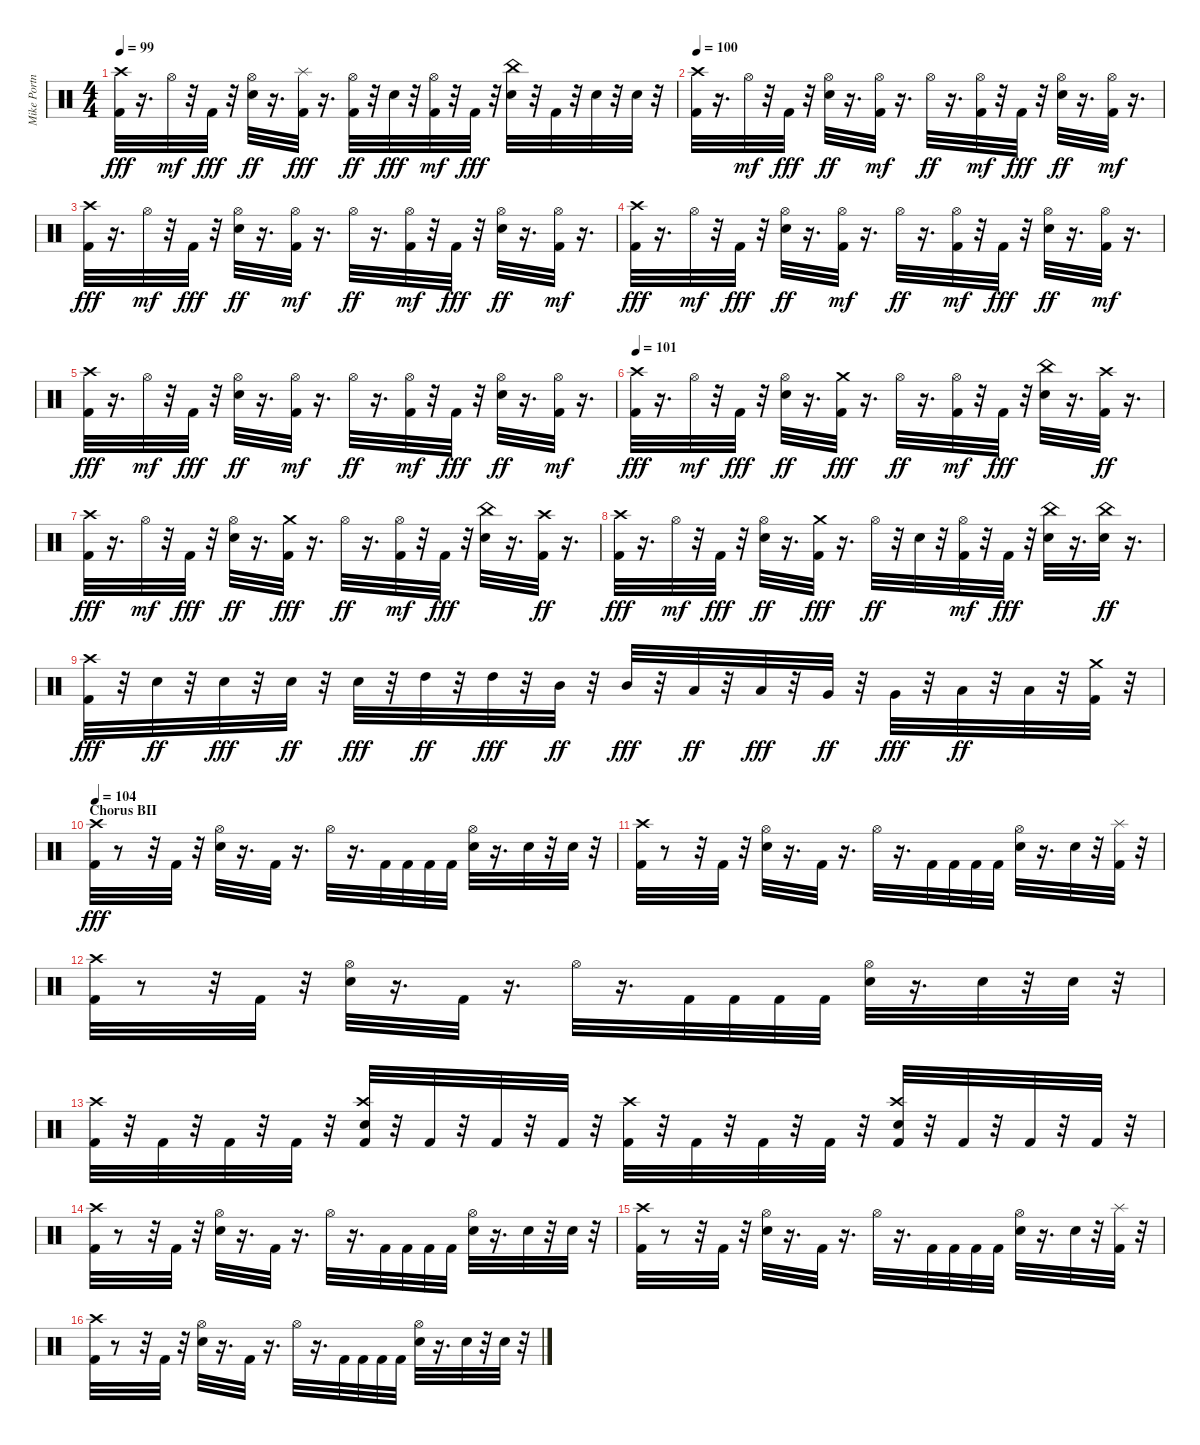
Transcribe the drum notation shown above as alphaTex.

\track ("Mike Portnoy" "Mike Portn") {instrument percussion}
\staff {score}
\articulation defaults
\ts (4 4)
\tempo 99
\clef neutral
\ks c
("Kick (hit) 2" "Crash high (hit)").32{dy fff} r.16{d} "Hi-Hat (open)".32{dy mf} r.32 "Kick (hit) 2".32{dy fff} r.32 ("Snare (hit) 2" "Hi-Hat (open)").32{dy ff} r.16{d} ("Kick (hit) 2" "Splash (hit)").32{dy fff} r.16{d} ("Kick (hit) 2" "Hi-Hat (open)").32{dy ff} r.32 "Snare (hit) 2".32{dy fff} r.32 ("Kick (hit) 2" "Hi-Hat (open)").32{dy mf} r.32 "Kick (hit) 2".32{dy fff} r.32 ("Snare (hit) 2" "China (hit)").32 r.32 "Kick (hit) 2".32 r.32 "Snare (hit) 2".32 r.32 "Snare (hit) 2".32 r.32 |
\tempo 100
("Kick (hit) 2" "Crash high (hit)").32 r.16{d} "Hi-Hat (open)".32{dy mf} r.32 "Kick (hit) 2".32{dy fff} r.32 ("Snare (hit) 2" "Hi-Hat (open)").32{dy ff} r.16{d} ("Kick (hit) 2" "Hi-Hat (open)").32{dy mf} r.16{d} "Hi-Hat (open)".32{dy ff} r.16{d} ("Kick (hit) 2" "Hi-Hat (open)").32{dy mf} r.32 "Kick (hit) 2".32{dy fff} r.32 ("Snare (hit) 2" "Hi-Hat (open)").32{dy ff} r.16{d} ("Kick (hit) 2" "Hi-Hat (open)").32{dy mf} r.16{d} |
("Kick (hit) 2" "Crash high (hit)").32{dy fff} r.16{d} "Hi-Hat (open)".32{dy mf} r.32 "Kick (hit) 2".32{dy fff} r.32 ("Snare (hit) 2" "Hi-Hat (open)").32{dy ff} r.16{d} ("Kick (hit) 2" "Hi-Hat (open)").32{dy mf} r.16{d} "Hi-Hat (open)".32{dy ff} r.16{d} ("Kick (hit) 2" "Hi-Hat (open)").32{dy mf} r.32 "Kick (hit) 2".32{dy fff} r.32 ("Snare (hit) 2" "Hi-Hat (open)").32{dy ff} r.16{d} ("Kick (hit) 2" "Hi-Hat (open)").32{dy mf} r.16{d} |
("Kick (hit) 2" "Crash high (hit)").32{dy fff} r.16{d} "Hi-Hat (open)".32{dy mf} r.32 "Kick (hit) 2".32{dy fff} r.32 ("Snare (hit) 2" "Hi-Hat (open)").32{dy ff} r.16{d} ("Kick (hit) 2" "Hi-Hat (open)").32{dy mf} r.16{d} "Hi-Hat (open)".32{dy ff} r.16{d} ("Kick (hit) 2" "Hi-Hat (open)").32{dy mf} r.32 "Kick (hit) 2".32{dy fff} r.32 ("Snare (hit) 2" "Hi-Hat (open)").32{dy ff} r.16{d} ("Kick (hit) 2" "Hi-Hat (open)").32{dy mf} r.16{d} |
("Kick (hit) 2" "Crash high (hit)").32{dy fff} r.16{d} "Hi-Hat (open)".32{dy mf} r.32 "Kick (hit) 2".32{dy fff} r.32 ("Snare (hit) 2" "Hi-Hat (open)").32{dy ff} r.16{d} ("Kick (hit) 2" "Hi-Hat (open)").32{dy mf} r.16{d} "Hi-Hat (open)".32{dy ff} r.16{d} ("Kick (hit) 2" "Hi-Hat (open)").32{dy mf} r.32 "Kick (hit) 2".32{dy fff} r.32 ("Snare (hit) 2" "Hi-Hat (open)").32{dy ff} r.16{d} ("Kick (hit) 2" "Hi-Hat (open)").32{dy mf} r.16{d} |
\tempo 101
("Kick (hit) 2" "Crash high (hit)").32{dy fff} r.16{d} "Hi-Hat (open)".32{dy mf} r.32 "Kick (hit) 2".32{dy fff} r.32 ("Snare (hit) 2" "Hi-Hat (open)").32{dy ff} r.16{d} ("Kick (hit) 2" "Crash medium (hit)").32{dy fff} r.16{d} "Hi-Hat (open)".32{dy ff} r.16{d} ("Kick (hit) 2" "Hi-Hat (open)").32{dy mf} r.32 "Kick (hit) 2".32{dy fff} r.32 ("Snare (hit) 2" "China (hit)").32 r.16{d} ("Kick (hit) 2" "Crash high (hit)").32{dy ff} r.16{d} |
("Kick (hit) 2" "Crash high (hit)").32{dy fff} r.16{d} "Hi-Hat (open)".32{dy mf} r.32 "Kick (hit) 2".32{dy fff} r.32 ("Snare (hit) 2" "Hi-Hat (open)").32{dy ff} r.16{d} ("Kick (hit) 2" "Crash medium (hit)").32{dy fff} r.16{d} "Hi-Hat (open)".32{dy ff} r.16{d} ("Kick (hit) 2" "Hi-Hat (open)").32{dy mf} r.32 "Kick (hit) 2".32{dy fff} r.32 ("Snare (hit) 2" "China (hit)").32 r.16{d} ("Kick (hit) 2" "Crash high (hit)").32{dy ff} r.16{d} |
("Kick (hit) 2" "Crash high (hit)").32{dy fff} r.16{d} "Hi-Hat (open)".32{dy mf} r.32 "Kick (hit) 2".32{dy fff} r.32 ("Snare (hit) 2" "Hi-Hat (open)").32{dy ff} r.16{d} ("Kick (hit) 2" "Crash medium (hit)").32{dy fff} r.16{d} "Hi-Hat (open)".32{dy ff} r.32 "Snare (hit) 2".32 r.32 ("Kick (hit) 2" "Hi-Hat (open)").32{dy mf} r.32 "Kick (hit) 2".32{dy fff} r.32 ("Snare (hit) 2" "China (hit)").32 r.16{d} ("Snare (hit) 2" "China (hit)").32{dy ff} r.16{d} |
("Kick (hit) 2" "Crash high (hit)").32{dy fff} r.32 "Snare (hit) 2".32{dy ff} r.32 "Snare (hit) 2".32{dy fff} r.32 "Snare (hit) 2".32{dy ff} r.32 "Snare (hit) 2".32{dy fff} r.32 "High Tom (hit)".32{dy ff} r.32 "High Tom (hit)".32{dy fff} r.32 "Mid Tom (hit)".32{dy ff} r.32 "Mid Tom (hit)".32{dy fff} r.32 "Low Tom (hit)".32{dy ff} r.32 "Low Tom (hit)".32{dy fff} r.32 "Very Low Tom (hit)".32{dy ff} r.32 "Very Low Tom (hit)".32{dy fff} r.32 "Low Floor Tom (hit)".32{dy ff} r.32 "Low Floor Tom (hit)".32 r.32 ("Kick (hit) 2" "Crash medium (hit)").32 r.32 |
\section ("" "Chorus BII")
\tempo 104
("Kick (hit) 2" "Crash high (hit)").32{dy fff} r.8 r.32 "Kick (hit) 2".32 r.32 ("Hi-Hat (open)" "Snare (hit) 2").32 r.16{d} "Kick (hit) 2".32 r.16{d} "Hi-Hat (open)".32 r.16{d} "Kick (hit) 2".32 "Kick (hit) 2".32 "Kick (hit) 2".32 "Kick (hit) 2".32 ("Hi-Hat (open)" "Snare (hit) 2").32 r.16{d} "Snare (hit) 2".32 r.32 "Snare (hit) 2".32 r.32 |
("Kick (hit) 2" "Crash high (hit)").32 r.8 r.32 "Kick (hit) 2".32 r.32 ("Hi-Hat (open)" "Snare (hit) 2").32 r.16{d} "Kick (hit) 2".32 r.16{d} "Hi-Hat (open)".32 r.16{d} "Kick (hit) 2".32 "Kick (hit) 2".32 "Kick (hit) 2".32 "Kick (hit) 2".32 ("Hi-Hat (open)" "Snare (hit) 2").32 r.16{d} "Snare (hit) 2".32 r.32 ("Kick (hit) 2" "Splash (hit)").32 r.32 |
("Kick (hit) 2" "Crash high (hit)").32 r.8 r.32 "Kick (hit) 2".32 r.32 ("Hi-Hat (open)" "Snare (hit) 2").32 r.16{d} "Kick (hit) 2".32 r.16{d} "Hi-Hat (open)".32 r.16{d} "Kick (hit) 2".32 "Kick (hit) 2".32 "Kick (hit) 2".32 "Kick (hit) 2".32 ("Hi-Hat (open)" "Snare (hit) 2").32 r.16{d} "Snare (hit) 2".32 r.32 "Snare (hit) 2".32 r.32 |
("Kick (hit) 2" "Crash high (hit)").32 r.32 "Kick (hit) 2".32 r.32 "Kick (hit) 2".32 r.32 "Kick (hit) 2".32 r.32 ("Kick (hit) 2" "Crash high (hit)" "Snare (hit) 2").32 r.32 "Kick (hit) 2".32 r.32 "Kick (hit) 2".32 r.32 "Kick (hit) 2".32 r.32 ("Kick (hit) 2" "Crash high (hit)").32 r.32 "Kick (hit) 2".32 r.32 "Kick (hit) 2".32 r.32 "Kick (hit) 2".32 r.32 ("Kick (hit) 2" "Crash high (hit)" "Snare (hit) 2").32 r.32 "Kick (hit) 2".32 r.32 "Kick (hit) 2".32 r.32 "Kick (hit) 2".32 r.32 |
("Kick (hit) 2" "Crash high (hit)").32 r.8 r.32 "Kick (hit) 2".32 r.32 ("Hi-Hat (open)" "Snare (hit) 2").32 r.16{d} "Kick (hit) 2".32 r.16{d} "Hi-Hat (open)".32 r.16{d} "Kick (hit) 2".32 "Kick (hit) 2".32 "Kick (hit) 2".32 "Kick (hit) 2".32 ("Hi-Hat (open)" "Snare (hit) 2").32 r.16{d} "Snare (hit) 2".32 r.32 "Snare (hit) 2".32 r.32 |
("Kick (hit) 2" "Crash high (hit)").32 r.8 r.32 "Kick (hit) 2".32 r.32 ("Hi-Hat (open)" "Snare (hit) 2").32 r.16{d} "Kick (hit) 2".32 r.16{d} "Hi-Hat (open)".32 r.16{d} "Kick (hit) 2".32 "Kick (hit) 2".32 "Kick (hit) 2".32 "Kick (hit) 2".32 ("Hi-Hat (open)" "Snare (hit) 2").32 r.16{d} "Snare (hit) 2".32 r.32 ("Kick (hit) 2" "Splash (hit)").32 r.32 |
("Kick (hit) 2" "Crash high (hit)").32 r.8 r.32 "Kick (hit) 2".32 r.32 ("Hi-Hat (open)" "Snare (hit) 2").32 r.16{d} "Kick (hit) 2".32 r.16{d} "Hi-Hat (open)".32 r.16{d} "Kick (hit) 2".32 "Kick (hit) 2".32 "Kick (hit) 2".32 "Kick (hit) 2".32 ("Hi-Hat (open)" "Snare (hit) 2").32 r.16{d} "Snare (hit) 2".32 r.32 "Snare (hit) 2".32 r.32
